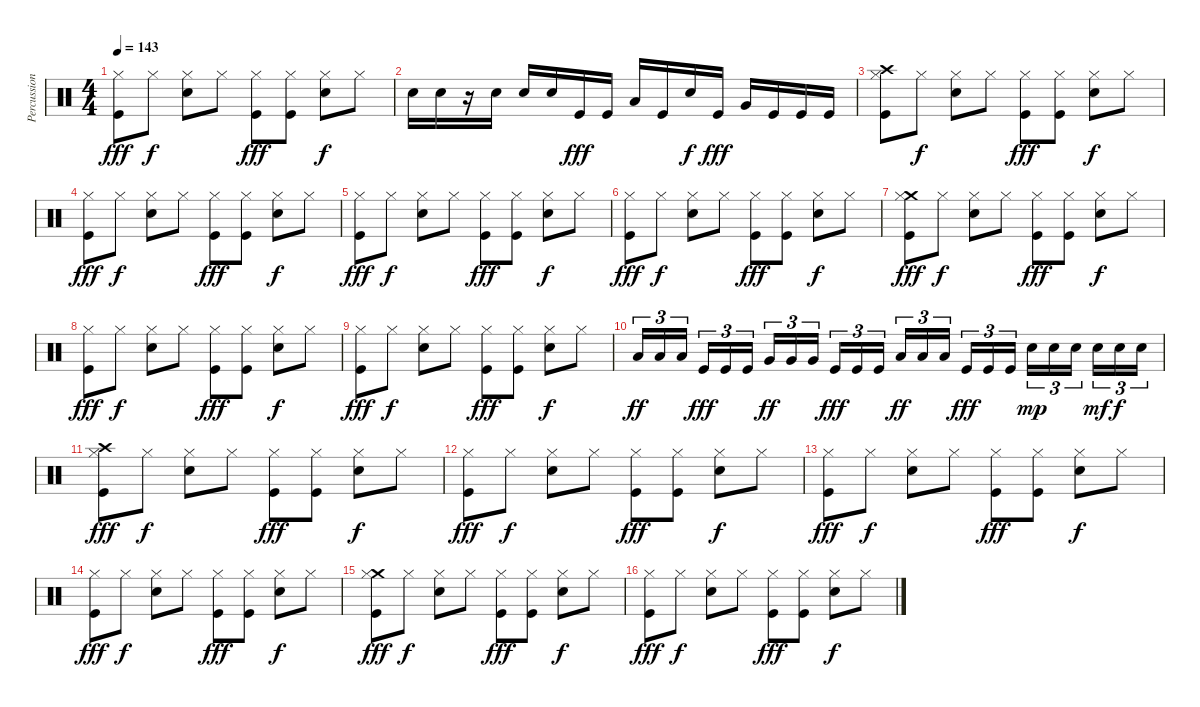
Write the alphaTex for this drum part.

\track ("Percussion" "Percussion") {instrument percussion}
\staff {score}
\articulation defaults
\ts (4 4)
\tempo 143
\clef neutral
\ks c
("Kick (hit)" "Hi-Hat (closed)").8{dy fff} "Hi-Hat (closed)".8{dy f} ("Electric Snare (hit)" "Hi-Hat (closed)").8 "Hi-Hat (closed)".8 ("Kick (hit)" "Hi-Hat (closed)").8{dy fff} ("Kick (hit)" "Hi-Hat (closed)").8 ("Electric Snare (hit)" "Hi-Hat (closed)").8{dy f} "Hi-Hat (closed)".8 |
"Electric Snare (hit)".16 "Electric Snare (hit)".16 r.16 "Electric Snare (hit)".16 "Electric Snare (hit)".16 "Electric Snare (hit)".16 "Kick (hit)".16{dy fff} "Kick (hit)".16 "Low Floor Tom (hit)".16 "Kick (hit)".16 "Electric Snare (hit)".16{dy f} "Kick (hit)".16{dy fff} "Very Low Tom (hit)".16 "Kick (hit)".16 "Kick (hit)".16 "Kick (hit)".16 |
("Crash high (hit)" "Kick (hit)" "Hi-Hat (closed)").8 "Hi-Hat (closed)".8{dy f} ("Electric Snare (hit)" "Hi-Hat (closed)").8 "Hi-Hat (closed)".8 ("Kick (hit)" "Hi-Hat (closed)").8{dy fff} ("Kick (hit)" "Hi-Hat (closed)").8 ("Electric Snare (hit)" "Hi-Hat (closed)").8{dy f} "Hi-Hat (closed)".8 |
("Kick (hit)" "Hi-Hat (closed)").8{dy fff} "Hi-Hat (closed)".8{dy f} ("Electric Snare (hit)" "Hi-Hat (closed)").8 "Hi-Hat (closed)".8 ("Kick (hit)" "Hi-Hat (closed)").8{dy fff} ("Kick (hit)" "Hi-Hat (closed)").8 ("Electric Snare (hit)" "Hi-Hat (closed)").8{dy f} "Hi-Hat (closed)".8 |
("Kick (hit)" "Hi-Hat (closed)").8{dy fff} "Hi-Hat (closed)".8{dy f} ("Electric Snare (hit)" "Hi-Hat (closed)").8 "Hi-Hat (closed)".8 ("Kick (hit)" "Hi-Hat (closed)").8{dy fff} ("Kick (hit)" "Hi-Hat (closed)").8 ("Electric Snare (hit)" "Hi-Hat (closed)").8{dy f} "Hi-Hat (closed)".8 |
("Kick (hit)" "Hi-Hat (closed)").8{dy fff} "Hi-Hat (closed)".8{dy f} ("Electric Snare (hit)" "Hi-Hat (closed)").8 "Hi-Hat (closed)".8 ("Kick (hit)" "Hi-Hat (closed)").8{dy fff} ("Kick (hit)" "Hi-Hat (closed)").8 ("Electric Snare (hit)" "Hi-Hat (closed)").8{dy f} "Hi-Hat (closed)".8 |
("Crash medium (hit)" "Kick (hit)" "Hi-Hat (closed)").8{dy fff} "Hi-Hat (closed)".8{dy f} ("Electric Snare (hit)" "Hi-Hat (closed)").8 "Hi-Hat (closed)".8 ("Kick (hit)" "Hi-Hat (closed)").8{dy fff} ("Kick (hit)" "Hi-Hat (closed)").8 ("Electric Snare (hit)" "Hi-Hat (closed)").8{dy f} "Hi-Hat (closed)".8 |
("Kick (hit)" "Hi-Hat (closed)").8{dy fff} "Hi-Hat (closed)".8{dy f} ("Electric Snare (hit)" "Hi-Hat (closed)").8 "Hi-Hat (closed)".8 ("Kick (hit)" "Hi-Hat (closed)").8{dy fff} ("Kick (hit)" "Hi-Hat (closed)").8 ("Electric Snare (hit)" "Hi-Hat (closed)").8{dy f} "Hi-Hat (closed)".8 |
("Kick (hit)" "Hi-Hat (closed)").8{dy fff} "Hi-Hat (closed)".8{dy f} ("Electric Snare (hit)" "Hi-Hat (closed)").8 "Hi-Hat (closed)".8 ("Kick (hit)" "Hi-Hat (closed)").8{dy fff} ("Kick (hit)" "Hi-Hat (closed)").8 ("Electric Snare (hit)" "Hi-Hat (closed)").8{dy f} "Hi-Hat (closed)".8 |
"Low Tom (hit)".16{tu (3 2) dy ff} "Low Tom (hit)".16{tu (3 2)} "Low Tom (hit)".16{tu (3 2)} "Kick (hit)".16{tu (3 2) dy fff} "Kick (hit)".16{tu (3 2)} "Kick (hit)".16{tu (3 2)} "Very Low Tom (hit)".16{tu (3 2) dy ff} "Very Low Tom (hit)".16{tu (3 2)} "Very Low Tom (hit)".16{tu (3 2)} "Kick (hit)".16{tu (3 2) dy fff} "Kick (hit)".16{tu (3 2)} "Kick (hit)".16{tu (3 2)} "Low Floor Tom (hit)".16{tu (3 2) dy ff} "Low Floor Tom (hit)".16{tu (3 2)} "Low Floor Tom (hit)".16{tu (3 2)} "Kick (hit)".16{tu (3 2) dy fff} "Kick (hit)".16{tu (3 2)} "Kick (hit)".16{tu (3 2)} "Electric Snare (hit)".16{tu (3 2) dy mp} "Electric Snare (hit)".16{tu (3 2)} "Electric Snare (hit)".16{tu (3 2)} "Electric Snare (hit)".16{tu (3 2) dy mf} "Electric Snare (hit)".16{tu (3 2) dy f} "Electric Snare (hit)".16{tu (3 2)} |
("Crash high (hit)" "Kick (hit)" "Hi-Hat (closed)").8{dy fff} "Hi-Hat (closed)".8{dy f} ("Electric Snare (hit)" "Hi-Hat (closed)").8 "Hi-Hat (closed)".8 ("Kick (hit)" "Hi-Hat (closed)").8{dy fff} ("Kick (hit)" "Hi-Hat (closed)").8 ("Electric Snare (hit)" "Hi-Hat (closed)").8{dy f} "Hi-Hat (closed)".8 |
("Kick (hit)" "Hi-Hat (closed)").8{dy fff} "Hi-Hat (closed)".8{dy f} ("Electric Snare (hit)" "Hi-Hat (closed)").8 "Hi-Hat (closed)".8 ("Kick (hit)" "Hi-Hat (closed)").8{dy fff} ("Kick (hit)" "Hi-Hat (closed)").8 ("Electric Snare (hit)" "Hi-Hat (closed)").8{dy f} "Hi-Hat (closed)".8 |
("Kick (hit)" "Hi-Hat (closed)").8{dy fff} "Hi-Hat (closed)".8{dy f} ("Electric Snare (hit)" "Hi-Hat (closed)").8 "Hi-Hat (closed)".8 ("Kick (hit)" "Hi-Hat (closed)").8{dy fff} ("Kick (hit)" "Hi-Hat (closed)").8 ("Electric Snare (hit)" "Hi-Hat (closed)").8{dy f} "Hi-Hat (closed)".8 |
("Kick (hit)" "Hi-Hat (closed)").8{dy fff} "Hi-Hat (closed)".8{dy f} ("Electric Snare (hit)" "Hi-Hat (closed)").8 "Hi-Hat (closed)".8 ("Kick (hit)" "Hi-Hat (closed)").8{dy fff} ("Kick (hit)" "Hi-Hat (closed)").8 ("Electric Snare (hit)" "Hi-Hat (closed)").8{dy f} "Hi-Hat (closed)".8 |
("Crash medium (hit)" "Kick (hit)" "Hi-Hat (closed)").8{dy fff} "Hi-Hat (closed)".8{dy f} ("Electric Snare (hit)" "Hi-Hat (closed)").8 "Hi-Hat (closed)".8 ("Kick (hit)" "Hi-Hat (closed)").8{dy fff} ("Kick (hit)" "Hi-Hat (closed)").8 ("Electric Snare (hit)" "Hi-Hat (closed)").8{dy f} "Hi-Hat (closed)".8 |
("Kick (hit)" "Hi-Hat (closed)").8{dy fff} "Hi-Hat (closed)".8{dy f} ("Electric Snare (hit)" "Hi-Hat (closed)").8 "Hi-Hat (closed)".8 ("Kick (hit)" "Hi-Hat (closed)").8{dy fff} ("Kick (hit)" "Hi-Hat (closed)").8 ("Electric Snare (hit)" "Hi-Hat (closed)").8{dy f} "Hi-Hat (closed)".8
